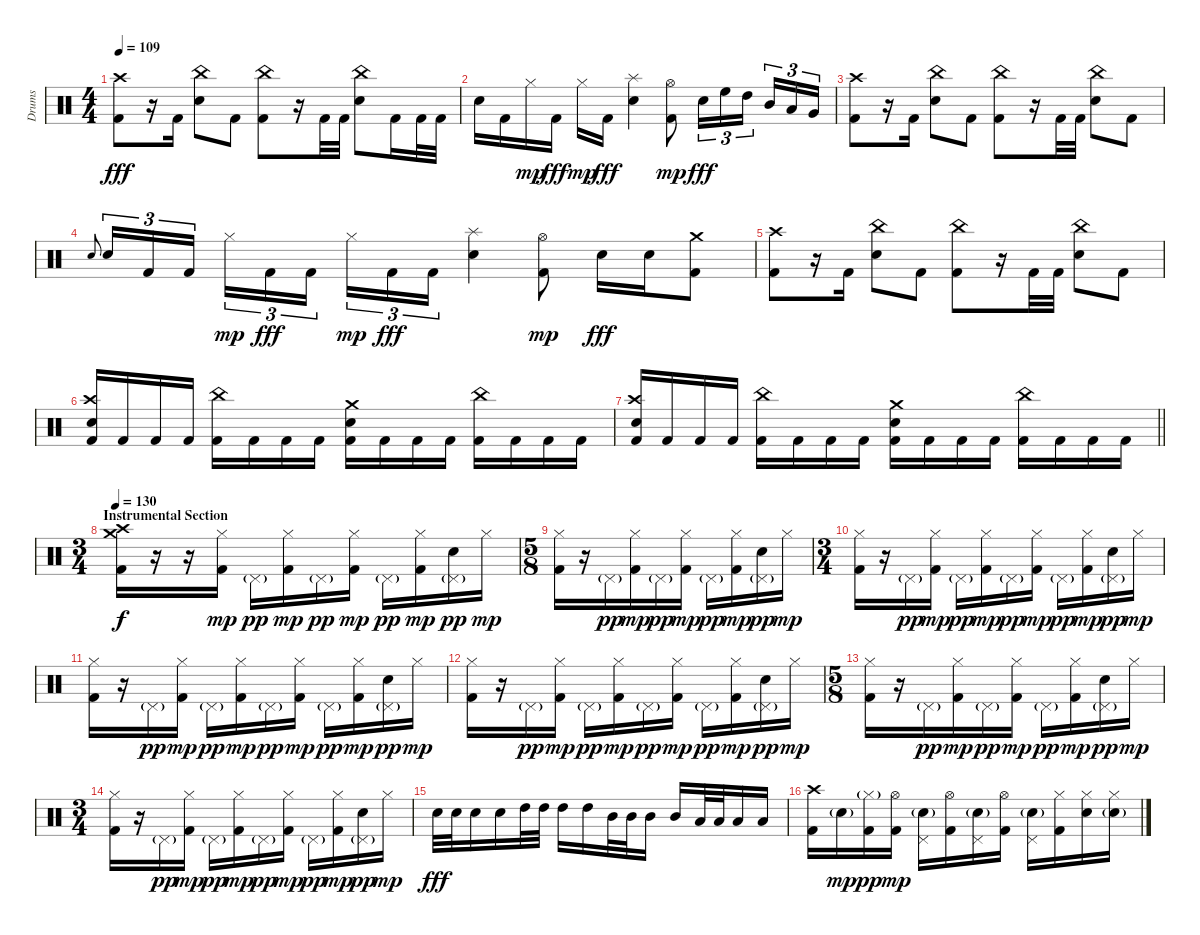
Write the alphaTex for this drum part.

\track ("Drums" "Drums") {instrument percussion}
\staff {score}
\articulation defaults
\ts (4 4)
\tempo 109
\clef neutral
\ks c
("Kick (hit) 2" "Crash high (hit)").8{dy fff} r.16 "Kick (hit) 2".16 ("Electric Snare (hit)" "China (hit)").8 "Kick (hit) 2".8 ("Kick (hit) 2" "China (hit)").8 r.16 "Kick (hit) 2".32 "Kick (hit) 2".32 ("Electric Snare (hit)" "China (hit)").8 "Kick (hit) 2".16 "Kick (hit) 2".32 "Kick (hit) 2".32 |
"Electric Snare (hit)".16 "Kick (hit) 2".16 "Hi-Hat (closed)".16{dy mp} "Kick (hit) 2".16{dy fff} "Hi-Hat (closed)".16{dy mp} "Kick (hit) 2".16{dy fff} ("Electric Snare (hit)" "Splash (hit)").4 ("Kick (hit) 2" "Hi-Hat (open)").8{dy mp} "Electric Snare (hit)".16{tu (3 2) dy fff} "High Floor Tom (hit)".16{tu (3 2)} "High Tom (hit)".16{tu (3 2) beam splitsecondary} "Mid Tom (hit)".16{tu (3 2)} "Low Tom (hit)".16{tu (3 2)} "Very Low Tom (hit)".16{tu (3 2)} |
("Kick (hit) 2" "Crash high (hit)").8 r.16 "Kick (hit) 2".16 ("Electric Snare (hit)" "China (hit)").8 "Kick (hit) 2".8 ("Kick (hit) 2" "China (hit)").8 r.16 "Kick (hit) 2".32 "Kick (hit) 2".32 ("Electric Snare (hit)" "China (hit)").8 "Kick (hit) 2".8 |
"Electric Snare (hit)".8{gr onbeat} "Electric Snare (hit)".16{tu (3 2)} "Kick (hit) 2".16{tu (3 2)} "Kick (hit) 2".16{tu (3 2) beam splitsecondary} "Hi-Hat (closed)".16{tu (3 2) dy mp} "Kick (hit) 2".16{tu (3 2) dy fff} "Kick (hit) 2".16{tu (3 2)} "Hi-Hat (closed)".16{tu (3 2) dy mp} "Kick (hit) 2".16{tu (3 2) dy fff} "Kick (hit) 2".16{tu (3 2)} ("Electric Snare (hit)" "Splash (hit)").4 ("Kick (hit) 2" "Hi-Hat (open)").8{dy mp} "Electric Snare (hit)".16{dy fff} "Electric Snare (hit)".16 ("Kick (hit) 2" "Crash medium (hit)").8 |
("Kick (hit) 2" "Crash high (hit)").8 r.16 "Kick (hit) 2".16 ("Electric Snare (hit)" "China (hit)").8 "Kick (hit) 2".8 ("Kick (hit) 2" "China (hit)").8 r.16 "Kick (hit) 2".32 "Kick (hit) 2".32 ("Electric Snare (hit)" "China (hit)").8 "Kick (hit) 2".8 |
("Kick (hit) 2" "Electric Snare (hit)" "Crash high (hit)").16 "Kick (hit) 2".16 "Kick (hit) 2".16 "Kick (hit) 2".16 ("Kick (hit) 2" "China (hit)").16 "Kick (hit) 2".16 "Kick (hit) 2".16 "Kick (hit) 2".16 ("Kick (hit) 2" "Electric Snare (hit)" "Crash medium (hit)").16 "Kick (hit) 2".16 "Kick (hit) 2".16 "Kick (hit) 2".16 ("Kick (hit) 2" "China (hit)").16 "Kick (hit) 2".16 "Kick (hit) 2".16 "Kick (hit) 2".16 |
\barLineRight lightlight
("Kick (hit) 2" "Electric Snare (hit)" "Crash high (hit)").16 "Kick (hit) 2".16 "Kick (hit) 2".16 "Kick (hit) 2".16 ("Kick (hit) 2" "China (hit)").16 "Kick (hit) 2".16 "Kick (hit) 2".16 "Kick (hit) 2".16 ("Kick (hit) 2" "Electric Snare (hit)" "Crash medium (hit)").16 "Kick (hit) 2".16 "Kick (hit) 2".16 "Kick (hit) 2".16 ("Kick (hit) 2" "China (hit)").16 "Kick (hit) 2".16 "Kick (hit) 2".16 "Kick (hit) 2".16 |
\ts (3 4)
\section ("" "Instrumental Section")
\tempo 130
("Kick (hit) 2" "Crash medium (hit)" "Crash high (hit)").16{dy f} r.16 r.16 ("Kick (hit) 2" "Hi-Hat (closed)").16{dy mp} "Pedal Hi-Hat (hit)"{g}.16{dy pp} ("Kick (hit) 2" "Hi-Hat (closed)").16{dy mp} "Pedal Hi-Hat (hit)"{g}.16{dy pp} ("Kick (hit) 2" "Hi-Hat (closed)").16{dy mp} "Pedal Hi-Hat (hit)"{g}.16{dy pp} ("Kick (hit) 2" "Hi-Hat (closed)").16{dy mp} ("Electric Snare (hit)" "Pedal Hi-Hat (hit)"{g}).16{dy pp} "Hi-Hat (closed)".16{dy mp} |
\ts (5 8)
("Kick (hit) 2" "Hi-Hat (closed)").16 r.16 "Pedal Hi-Hat (hit)"{g}.16{dy pp} ("Kick (hit) 2" "Hi-Hat (closed)").16{dy mp} "Pedal Hi-Hat (hit)"{g}.16{dy pp} ("Kick (hit) 2" "Hi-Hat (closed)").16{dy mp} "Pedal Hi-Hat (hit)"{g}.16{dy pp} ("Kick (hit) 2" "Hi-Hat (closed)").16{dy mp} ("Electric Snare (hit)" "Pedal Hi-Hat (hit)"{g}).16{dy pp} "Hi-Hat (closed)".16{dy mp} |
\ts (3 4)
("Kick (hit) 2" "Hi-Hat (closed)").16 r.16 "Pedal Hi-Hat (hit)"{g}.16{dy pp} ("Kick (hit) 2" "Hi-Hat (closed)").16{dy mp} "Pedal Hi-Hat (hit)"{g}.16{dy pp} ("Kick (hit) 2" "Hi-Hat (closed)").16{dy mp} "Pedal Hi-Hat (hit)"{g}.16{dy pp} ("Kick (hit) 2" "Hi-Hat (closed)").16{dy mp} "Pedal Hi-Hat (hit)"{g}.16{dy pp} ("Kick (hit) 2" "Hi-Hat (closed)").16{dy mp} ("Electric Snare (hit)" "Pedal Hi-Hat (hit)"{g}).16{dy pp} "Hi-Hat (closed)".16{dy mp} |
("Kick (hit) 2" "Hi-Hat (closed)").16 r.16 "Pedal Hi-Hat (hit)"{g}.16{dy pp} ("Kick (hit) 2" "Hi-Hat (closed)").16{dy mp} "Pedal Hi-Hat (hit)"{g}.16{dy pp} ("Kick (hit) 2" "Hi-Hat (closed)").16{dy mp} "Pedal Hi-Hat (hit)"{g}.16{dy pp} ("Kick (hit) 2" "Hi-Hat (closed)").16{dy mp} "Pedal Hi-Hat (hit)"{g}.16{dy pp} ("Kick (hit) 2" "Hi-Hat (closed)").16{dy mp} ("Electric Snare (hit)" "Pedal Hi-Hat (hit)"{g}).16{dy pp} "Hi-Hat (closed)".16{dy mp} |
("Kick (hit) 2" "Hi-Hat (closed)").16 r.16 "Pedal Hi-Hat (hit)"{g}.16{dy pp} ("Kick (hit) 2" "Hi-Hat (closed)").16{dy mp} "Pedal Hi-Hat (hit)"{g}.16{dy pp} ("Kick (hit) 2" "Hi-Hat (closed)").16{dy mp} "Pedal Hi-Hat (hit)"{g}.16{dy pp} ("Kick (hit) 2" "Hi-Hat (closed)").16{dy mp} "Pedal Hi-Hat (hit)"{g}.16{dy pp} ("Kick (hit) 2" "Hi-Hat (closed)").16{dy mp} ("Electric Snare (hit)" "Pedal Hi-Hat (hit)"{g}).16{dy pp} "Hi-Hat (closed)".16{dy mp} |
\ts (5 8)
("Kick (hit) 2" "Hi-Hat (closed)").16 r.16 "Pedal Hi-Hat (hit)"{g}.16{dy pp} ("Kick (hit) 2" "Hi-Hat (closed)").16{dy mp} "Pedal Hi-Hat (hit)"{g}.16{dy pp} ("Kick (hit) 2" "Hi-Hat (closed)").16{dy mp} "Pedal Hi-Hat (hit)"{g}.16{dy pp} ("Kick (hit) 2" "Hi-Hat (closed)").16{dy mp} ("Electric Snare (hit)" "Pedal Hi-Hat (hit)"{g}).16{dy pp} "Hi-Hat (closed)".16{dy mp} |
\ts (3 4)
("Kick (hit) 2" "Hi-Hat (closed)").16 r.16 "Pedal Hi-Hat (hit)"{g}.16{dy pp} ("Kick (hit) 2" "Hi-Hat (closed)").16{dy mp} "Pedal Hi-Hat (hit)"{g}.16{dy pp} ("Kick (hit) 2" "Hi-Hat (closed)").16{dy mp} "Pedal Hi-Hat (hit)"{g}.16{dy pp} ("Kick (hit) 2" "Hi-Hat (closed)").16{dy mp} "Pedal Hi-Hat (hit)"{g}.16{dy pp} ("Kick (hit) 2" "Hi-Hat (closed)").16{dy mp} ("Electric Snare (hit)" "Pedal Hi-Hat (hit)"{g}).16{dy pp} "Hi-Hat (closed)".16{dy mp} |
"Electric Snare (hit)".32{dy fff} "Electric Snare (hit)".32 "Electric Snare (hit)".16 "Electric Snare (hit)".16 "High Tom (hit)".32 "High Tom (hit)".32 "High Tom (hit)".16 "High Tom (hit)".16 "Mid Tom (hit)".32 "Mid Tom (hit)".32 "Mid Tom (hit)".16 "Mid Tom (hit)".16 "Low Tom (hit)".32 "Low Tom (hit)".32 "Low Tom (hit)".16 "Low Tom (hit)".16 |
("Kick (hit) 2" "Crash high (hit)").16 "Electric Snare (hit)"{g}.16{dy mp} ("Kick (hit) 2" "Hi-Hat (closed)"{g}).16{dy pp} ("Kick (hit) 2" "Hi-Hat (open)").16{dy mp} ("Electric Snare (hit)"{g} "Pedal Hi-Hat (hit)").16 ("Kick (hit) 2" "Hi-Hat (open)").16 ("Electric Snare (hit)"{g} "Pedal Hi-Hat (hit)").16 ("Kick (hit) 2" "Hi-Hat (open)").16 ("Electric Snare (hit)"{g} "Pedal Hi-Hat (hit)").16 ("Kick (hit) 2" "Hi-Hat (closed)").16 ("Electric Snare (hit)" "Hi-Hat (closed)").16 ("Electric Snare (hit)"{g} "Hi-Hat (closed)").16
